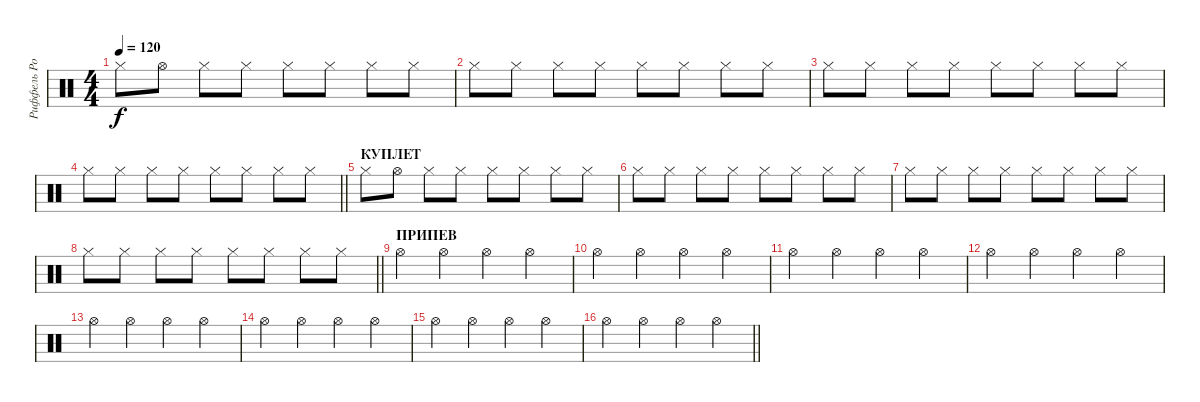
\track ("Риффель Роман (хэты)" "Риффель Ро") {instrument percussion}
\staff {score}
\articulation defaults
\ts (4 4)
\tempo 120
\clef neutral
\ks c "Hi-Hat (closed)".8{dy f} "Hi-Hat (open)".8 "Hi-Hat (closed)".8 "Hi-Hat (closed)".8 "Hi-Hat (closed)".8 "Hi-Hat (closed)".8 "Hi-Hat (closed)".8 "Hi-Hat (closed)".8
|
"Hi-Hat (closed)".8 "Hi-Hat (closed)".8 "Hi-Hat (closed)".8 "Hi-Hat (closed)".8 "Hi-Hat (closed)".8 "Hi-Hat (closed)".8 "Hi-Hat (closed)".8 "Hi-Hat (closed)".8 |
"Hi-Hat (closed)".8 "Hi-Hat (closed)".8 "Hi-Hat (closed)".8 "Hi-Hat (closed)".8 "Hi-Hat (closed)".8 "Hi-Hat (closed)".8 "Hi-Hat (closed)".8 "Hi-Hat (closed)".8 |
\barLineRight lightlight "Hi-Hat (closed)".8 "Hi-Hat (closed)".8 "Hi-Hat (closed)".8 "Hi-Hat (closed)".8 "Hi-Hat (closed)".8 "Hi-Hat (closed)".8 "Hi-Hat (closed)".8 "Hi-Hat (closed)".8
|
\section ("" "КУПЛЕТ")
"Hi-Hat (closed)".8 "Hi-Hat (open)".8 "Hi-Hat (closed)".8 "Hi-Hat (closed)".8 "Hi-Hat (closed)".8 "Hi-Hat (closed)".8 "Hi-Hat (closed)".8 "Hi-Hat (closed)".8 |
"Hi-Hat (closed)".8 "Hi-Hat (closed)".8 "Hi-Hat (closed)".8 "Hi-Hat (closed)".8 "Hi-Hat (closed)".8 "Hi-Hat (closed)".8 "Hi-Hat (closed)".8 "Hi-Hat (closed)".8 |
"Hi-Hat (closed)".8 "Hi-Hat (closed)".8 "Hi-Hat (closed)".8 "Hi-Hat (closed)".8 "Hi-Hat (closed)".8 "Hi-Hat (closed)".8 "Hi-Hat (closed)".8 "Hi-Hat (closed)".8 |
\barLineRight lightlight "Hi-Hat (closed)".8 "Hi-Hat (closed)".8 "Hi-Hat (closed)".8 "Hi-Hat (closed)".8 "Hi-Hat (closed)".8 "Hi-Hat (closed)".8 "Hi-Hat (closed)".8 "Hi-Hat (closed)".8
|
\section ("" "ПРИПЕВ")
"Hi-Hat (open)".4 "Hi-Hat (open)".4 "Hi-Hat (open)".4 "Hi-Hat (open)".4 |
"Hi-Hat (open)".4 "Hi-Hat (open)".4 "Hi-Hat (open)".4 "Hi-Hat (open)".4 |
"Hi-Hat (open)".4 "Hi-Hat (open)".4 "Hi-Hat (open)".4 "Hi-Hat (open)".4 |
"Hi-Hat (open)".4 "Hi-Hat (open)".4 "Hi-Hat (open)".4 "Hi-Hat (open)".4 |
"Hi-Hat (open)".4 "Hi-Hat (open)".4 "Hi-Hat (open)".4 "Hi-Hat (open)".4 |
"Hi-Hat (open)".4 "Hi-Hat (open)".4 "Hi-Hat (open)".4 "Hi-Hat (open)".4 |
"Hi-Hat (open)".4 "Hi-Hat (open)".4 "Hi-Hat (open)".4 "Hi-Hat (open)".4 |
\barLineRight lightlight "Hi-Hat (open)".4 "Hi-Hat (open)".4 "Hi-Hat (open)".4 "Hi-Hat (open)".4
